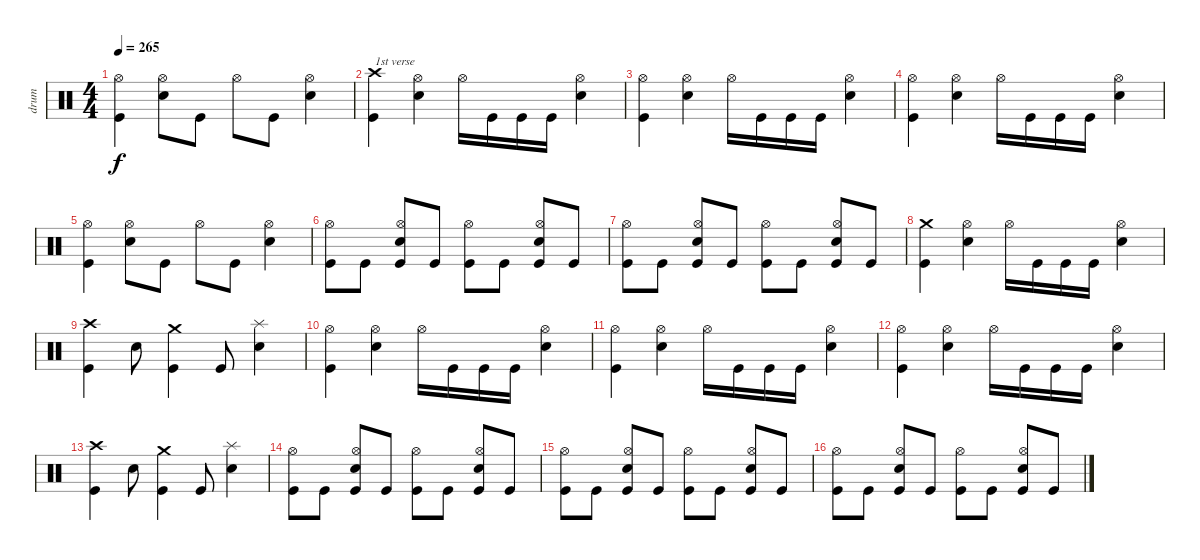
\track ("drum" "drum") {instrument percussion}
\staff {score}
\articulation defaults
\ts (4 4)
\tempo 265
\clef neutral
\ks c
("Kick (hit)" "Hi-Hat (open)").4{dy f} ("Electric Snare (hit)" "Hi-Hat (open)").8 "Kick (hit)".8 "Hi-Hat (open)".8 "Kick (hit)".8 ("Electric Snare (hit)" "Hi-Hat (open)").4 |
("Kick (hit)" "Crash high (hit)").4{txt "1st verse"} ("Electric Snare (hit)" "Hi-Hat (open)").4 "Hi-Hat (open)".16 "Kick (hit)".16 "Kick (hit)".16 "Kick (hit)".16 ("Electric Snare (hit)" "Hi-Hat (open)").4 |
("Kick (hit)" "Hi-Hat (open)").4 ("Electric Snare (hit)" "Hi-Hat (open)").4 "Hi-Hat (open)".16 "Kick (hit)".16 "Kick (hit)".16 "Kick (hit)".16 ("Electric Snare (hit)" "Hi-Hat (open)").4 |
("Kick (hit)" "Hi-Hat (open)").4 ("Electric Snare (hit)" "Hi-Hat (open)").4 "Hi-Hat (open)".16 "Kick (hit)".16 "Kick (hit)".16 "Kick (hit)".16 ("Electric Snare (hit)" "Hi-Hat (open)").4 |
("Kick (hit)" "Hi-Hat (open)").4 ("Electric Snare (hit)" "Hi-Hat (open)").8 "Kick (hit)".8 "Hi-Hat (open)".8 "Kick (hit)".8 ("Electric Snare (hit)" "Hi-Hat (open)").4 |
("Kick (hit)" "Hi-Hat (open)").8 "Kick (hit)".8 ("Kick (hit)" "Electric Snare (hit)" "Hi-Hat (open)").8 "Kick (hit)".8 ("Kick (hit)" "Hi-Hat (open)").8 "Kick (hit)".8 ("Kick (hit)" "Electric Snare (hit)" "Hi-Hat (open)").8 "Kick (hit)".8 |
("Kick (hit)" "Hi-Hat (open)").8 "Kick (hit)".8 ("Kick (hit)" "Electric Snare (hit)" "Hi-Hat (open)").8 "Kick (hit)".8 ("Kick (hit)" "Hi-Hat (open)").8 "Kick (hit)".8 ("Kick (hit)" "Electric Snare (hit)" "Hi-Hat (open)").8 "Kick (hit)".8 |
("Kick (hit)" "Crash medium (hit)").4 ("Electric Snare (hit)" "Hi-Hat (open)").4 "Hi-Hat (open)".16 "Kick (hit)".16 "Kick (hit)".16 "Kick (hit)".16 ("Electric Snare (hit)" "Hi-Hat (open)").4 |
("Kick (hit)" "Crash high (hit)").4 "Electric Snare (hit)".8 ("Kick (hit)" "Crash medium (hit)").4 "Kick (hit)".8 ("Electric Snare (hit)" "Splash (hit)").4 |
("Kick (hit)" "Hi-Hat (open)").4 ("Electric Snare (hit)" "Hi-Hat (open)").4 "Hi-Hat (open)".16 "Kick (hit)".16 "Kick (hit)".16 "Kick (hit)".16 ("Electric Snare (hit)" "Hi-Hat (open)").4 |
("Kick (hit)" "Hi-Hat (open)").4 ("Electric Snare (hit)" "Hi-Hat (open)").4 "Hi-Hat (open)".16 "Kick (hit)".16 "Kick (hit)".16 "Kick (hit)".16 ("Electric Snare (hit)" "Hi-Hat (open)").4 |
("Kick (hit)" "Hi-Hat (open)").4 ("Electric Snare (hit)" "Hi-Hat (open)").4 "Hi-Hat (open)".16 "Kick (hit)".16 "Kick (hit)".16 "Kick (hit)".16 ("Electric Snare (hit)" "Hi-Hat (open)").4 |
("Kick (hit)" "Crash high (hit)").4 "Electric Snare (hit)".8 ("Kick (hit)" "Crash medium (hit)").4 "Kick (hit)".8 ("Electric Snare (hit)" "Splash (hit)").4 |
("Kick (hit)" "Hi-Hat (open)").8 "Kick (hit)".8 ("Kick (hit)" "Electric Snare (hit)" "Hi-Hat (open)").8 "Kick (hit)".8 ("Kick (hit)" "Hi-Hat (open)").8 "Kick (hit)".8 ("Kick (hit)" "Electric Snare (hit)" "Hi-Hat (open)").8 "Kick (hit)".8 |
("Kick (hit)" "Hi-Hat (open)").8 "Kick (hit)".8 ("Kick (hit)" "Electric Snare (hit)" "Hi-Hat (open)").8 "Kick (hit)".8 ("Kick (hit)" "Hi-Hat (open)").8 "Kick (hit)".8 ("Kick (hit)" "Electric Snare (hit)" "Hi-Hat (open)").8 "Kick (hit)".8 |
("Kick (hit)" "Hi-Hat (open)").8 "Kick (hit)".8 ("Kick (hit)" "Electric Snare (hit)" "Hi-Hat (open)").8 "Kick (hit)".8 ("Kick (hit)" "Hi-Hat (open)").8 "Kick (hit)".8 ("Kick (hit)" "Electric Snare (hit)" "Hi-Hat (open)").8 "Kick (hit)".8
